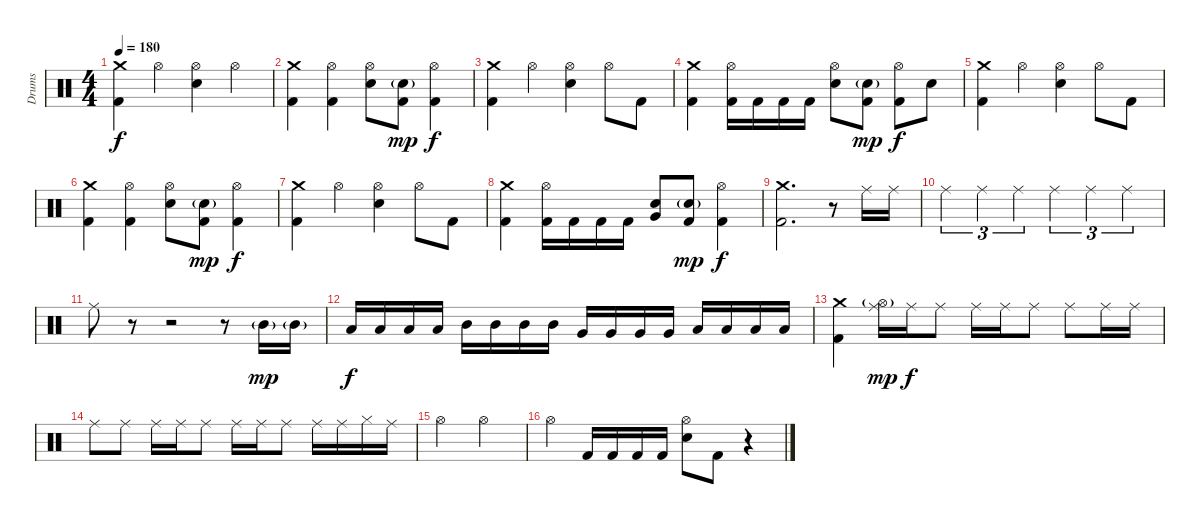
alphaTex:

\track ("Drums" "Drums") {instrument percussion}
\staff {score}
\articulation defaults
\ts (4 4)
\tempo 180
\clef neutral
\ks c
("Crash medium (hit)" "Kick (hit) 2").4{dy f} "Hi-Hat (open)".4 ("Hi-Hat (open)" "Electric Snare (hit)").4 "Hi-Hat (open)".4 |
("Crash medium (hit)" "Kick (hit) 2").4 ("Hi-Hat (open)" "Kick (hit) 2").4 ("Hi-Hat (open)" "Electric Snare (hit)").8 ("Electric Snare (hit)"{g} "Kick (hit) 2").8{dy mp} ("Hi-Hat (open)" "Kick (hit) 2").4{dy f} |
("Crash medium (hit)" "Kick (hit) 2").4 "Hi-Hat (open)".4 ("Hi-Hat (open)" "Electric Snare (hit)").4 "Hi-Hat (open)".8 "Kick (hit) 2".8 |
("Crash medium (hit)" "Kick (hit) 2").4 ("Hi-Hat (open)" "Kick (hit) 2").16 "Kick (hit) 2".16 "Kick (hit) 2".16 "Kick (hit) 2".16 ("Hi-Hat (open)" "Electric Snare (hit)").8 ("Electric Snare (hit)"{g} "Kick (hit) 2").8{dy mp} ("Hi-Hat (open)" "Kick (hit) 2").8{dy f} "Electric Snare (hit)".8 |
("Crash medium (hit)" "Kick (hit) 2").4 "Hi-Hat (open)".4 ("Hi-Hat (open)" "Electric Snare (hit)").4 "Hi-Hat (open)".8 "Kick (hit) 2".8 |
("Crash medium (hit)" "Kick (hit) 2").4 ("Hi-Hat (open)" "Kick (hit) 2").4 ("Hi-Hat (open)" "Electric Snare (hit)").8 ("Electric Snare (hit)"{g} "Kick (hit) 2").8{dy mp} ("Hi-Hat (open)" "Kick (hit) 2").4{dy f} |
("Crash medium (hit)" "Kick (hit) 2").4 "Hi-Hat (open)".4 ("Hi-Hat (open)" "Electric Snare (hit)").4 "Hi-Hat (open)".8 "Kick (hit) 2".8 |
("Crash medium (hit)" "Kick (hit) 2").4 ("Hi-Hat (open)" "Kick (hit) 2").16 "Kick (hit) 2".16 "Kick (hit) 2".16 "Kick (hit) 2".16 ("Very Low Tom (hit)" "Electric Snare (hit)").8 ("Electric Snare (hit)"{g} "Kick (hit) 2").8{dy mp} ("Hi-Hat (open)" "Kick (hit) 2").4{dy f} |
("Crash medium (hit)" "Kick (hit) 2").2{d} r.8 "Ride (middle)".16 "Ride (middle)".16 |
"Ride (middle)".4{tu (3 2)} "Ride (middle)".4{tu (3 2)} "Ride (middle)".4{tu (3 2)} "Ride (middle)".4{tu (3 2)} "Ride (middle)".4{tu (3 2)} "Ride (middle)".4{tu (3 2)} |
"Ride (middle)".8 r.8 r.2 r.8 "Mid Tom (hit)"{g}.16{dy mp} "Mid Tom (hit)"{g}.16 |
"Low Tom (hit)".16{dy f} "Low Tom (hit)".16 "Low Tom (hit)".16 "Low Tom (hit)".16 "Mid Tom (hit)".16 "Mid Tom (hit)".16 "Mid Tom (hit)".16 "Mid Tom (hit)".16 "Very Low Tom (hit)".16 "Very Low Tom (hit)".16 "Very Low Tom (hit)".16 "Very Low Tom (hit)".16 "Low Tom (hit)".16 "Low Tom (hit)".16 "Low Tom (hit)".16 "Low Tom (hit)".16 |
("Crash medium (hit)" "Kick (hit) 2").4 ("Hi-Hat (open)"{g} "Ride (middle)").16{dy mp} "Ride (middle)".16{dy f} "Ride (middle)".8 "Ride (middle)".16 "Ride (middle)".16 "Ride (middle)".8 "Ride (middle)".8 "Ride (middle)".16 "Ride (middle)".16 |
"Ride (middle)".8 "Ride (middle)".8 "Ride (middle)".16 "Ride (middle)".16 "Ride (middle)".8 "Ride (middle)".16 "Ride (middle)".16 "Ride (middle)".8 "Ride (middle)".16 "Ride (middle)".16 "Hi-Hat (closed)".16 "Ride (middle)".16 |
"Hi-Hat (open)".2 "Hi-Hat (open)".2 |
"Hi-Hat (open)".4 "Kick (hit) 2".16 "Kick (hit) 2".16 "Kick (hit) 2".16 "Kick (hit) 2".16 ("Hi-Hat (open)" "Electric Snare (hit)").8 "Kick (hit) 2".8 r.4
